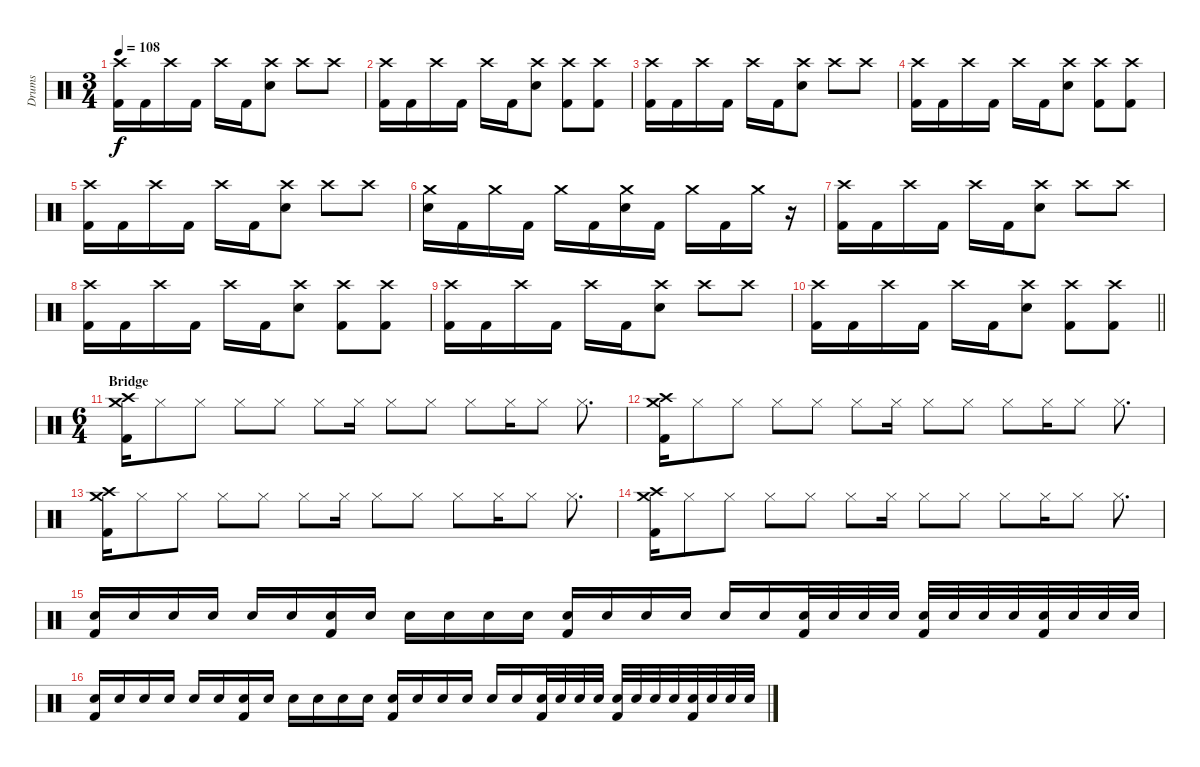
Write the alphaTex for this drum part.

\track ("Drums" "Drums") {instrument percussion}
\staff {score}
\articulation defaults
\ts (3 4)
\tempo 108
\clef neutral
\ks c
("Crash high (hit)" "Kick (hit) 2").16{dy f} "Kick (hit) 2".16 "Crash high (hit)".16 "Kick (hit) 2".16 "Crash high (hit)".16 "Kick (hit) 2".16 ("Crash high (hit)" "Electric Snare (hit)").8 "Crash high (hit)".8 "Crash high (hit)".8 |
("Crash high (hit)" "Kick (hit) 2").16 "Kick (hit) 2".16 "Crash high (hit)".16 "Kick (hit) 2".16 "Crash high (hit)".16 "Kick (hit) 2".16 ("Crash high (hit)" "Electric Snare (hit)").8 ("Crash high (hit)" "Kick (hit) 2").8 ("Crash high (hit)" "Kick (hit) 2").8 |
("Crash high (hit)" "Kick (hit) 2").16 "Kick (hit) 2".16 "Crash high (hit)".16 "Kick (hit) 2".16 "Crash high (hit)".16 "Kick (hit) 2".16 ("Crash high (hit)" "Electric Snare (hit)").8 "Crash high (hit)".8 "Crash high (hit)".8 |
("Crash high (hit)" "Kick (hit) 2").16 "Kick (hit) 2".16 "Crash high (hit)".16 "Kick (hit) 2".16 "Crash high (hit)".16 "Kick (hit) 2".16 ("Crash high (hit)" "Electric Snare (hit)").8 ("Crash high (hit)" "Kick (hit) 2").8 ("Crash high (hit)" "Kick (hit) 2").8 |
("Crash high (hit)" "Kick (hit) 2").16 "Kick (hit) 2".16 "Crash high (hit)".16 "Kick (hit) 2".16 "Crash high (hit)".16 "Kick (hit) 2".16 ("Crash high (hit)" "Electric Snare (hit)").8 "Crash high (hit)".8 "Crash high (hit)".8 |
("Crash medium (hit)" "Electric Snare (hit)").16 "Kick (hit) 2".16 "Crash medium (hit)".16 "Kick (hit) 2".16 "Crash medium (hit)".16 "Kick (hit) 2".16 ("Crash medium (hit)" "Electric Snare (hit)").16 "Kick (hit) 2".16 "Crash medium (hit)".16 "Kick (hit) 2".16 "Crash medium (hit)".16 r.16 |
("Crash high (hit)" "Kick (hit) 2").16 "Kick (hit) 2".16 "Crash high (hit)".16 "Kick (hit) 2".16 "Crash high (hit)".16 "Kick (hit) 2".16 ("Crash high (hit)" "Electric Snare (hit)").8 "Crash high (hit)".8 "Crash high (hit)".8 |
("Crash high (hit)" "Kick (hit) 2").16 "Kick (hit) 2".16 "Crash high (hit)".16 "Kick (hit) 2".16 "Crash high (hit)".16 "Kick (hit) 2".16 ("Crash high (hit)" "Electric Snare (hit)").8 ("Crash high (hit)" "Kick (hit) 2").8 ("Crash high (hit)" "Kick (hit) 2").8 |
("Crash high (hit)" "Kick (hit) 2").16 "Kick (hit) 2".16 "Crash high (hit)".16 "Kick (hit) 2".16 "Crash high (hit)".16 "Kick (hit) 2".16 ("Crash high (hit)" "Electric Snare (hit)").8 "Crash high (hit)".8 "Crash high (hit)".8 |
\barLineRight lightlight
("Crash high (hit)" "Kick (hit) 2").16 "Kick (hit) 2".16 "Crash high (hit)".16 "Kick (hit) 2".16 "Crash high (hit)".16 "Kick (hit) 2".16 ("Crash high (hit)" "Electric Snare (hit)").8 ("Crash high (hit)" "Kick (hit) 2").8 ("Crash high (hit)" "Kick (hit) 2").8 |
\ts (6 4)
\section ("" "Bridge")
("Crash medium (hit)" "Crash high (hit)" "Kick (hit) 2").16 "Hi-Hat (closed)".8 "Hi-Hat (closed)".8 "Hi-Hat (closed)".8 "Hi-Hat (closed)".8 "Hi-Hat (closed)".8 "Hi-Hat (closed)".16 "Hi-Hat (closed)".8 "Hi-Hat (closed)".8 "Hi-Hat (closed)".8 "Hi-Hat (closed)".16 "Hi-Hat (closed)".8 "Hi-Hat (closed)".8{d} |
("Crash medium (hit)" "Crash high (hit)" "Kick (hit) 2").16 "Hi-Hat (closed)".8 "Hi-Hat (closed)".8 "Hi-Hat (closed)".8 "Hi-Hat (closed)".8 "Hi-Hat (closed)".8 "Hi-Hat (closed)".16 "Hi-Hat (closed)".8 "Hi-Hat (closed)".8 "Hi-Hat (closed)".8 "Hi-Hat (closed)".16 "Hi-Hat (closed)".8 "Hi-Hat (closed)".8{d} |
("Crash medium (hit)" "Crash high (hit)" "Kick (hit) 2").16 "Hi-Hat (closed)".8 "Hi-Hat (closed)".8 "Hi-Hat (closed)".8 "Hi-Hat (closed)".8 "Hi-Hat (closed)".8 "Hi-Hat (closed)".16 "Hi-Hat (closed)".8 "Hi-Hat (closed)".8 "Hi-Hat (closed)".8 "Hi-Hat (closed)".16 "Hi-Hat (closed)".8 "Hi-Hat (closed)".8{d} |
("Crash medium (hit)" "Crash high (hit)" "Kick (hit) 2").16 "Hi-Hat (closed)".8 "Hi-Hat (closed)".8 "Hi-Hat (closed)".8 "Hi-Hat (closed)".8 "Hi-Hat (closed)".8 "Hi-Hat (closed)".16 "Hi-Hat (closed)".8 "Hi-Hat (closed)".8 "Hi-Hat (closed)".8 "Hi-Hat (closed)".16 "Hi-Hat (closed)".8 "Hi-Hat (closed)".8{d} |
("Electric Snare (hit)" "Kick (hit) 2").16 "Electric Snare (hit)".16 "Electric Snare (hit)".16 "Electric Snare (hit)".16 "Electric Snare (hit)".16 "Electric Snare (hit)".16 ("Electric Snare (hit)" "Kick (hit) 2").16 "Electric Snare (hit)".16 "Electric Snare (hit)".16 "Electric Snare (hit)".16 "Electric Snare (hit)".16 "Electric Snare (hit)".16 ("Electric Snare (hit)" "Kick (hit) 2").16 "Electric Snare (hit)".16 "Electric Snare (hit)".16 "Electric Snare (hit)".16 "Electric Snare (hit)".16 "Electric Snare (hit)".16 ("Electric Snare (hit)" "Kick (hit) 2").32 "Electric Snare (hit)".32 "Electric Snare (hit)".32 "Electric Snare (hit)".32 ("Electric Snare (hit)" "Kick (hit) 2").32 "Electric Snare (hit)".32 "Electric Snare (hit)".32 "Electric Snare (hit)".32 ("Electric Snare (hit)" "Kick (hit) 2").32 "Electric Snare (hit)".32 "Electric Snare (hit)".32 "Electric Snare (hit)".32 |
("Electric Snare (hit)" "Kick (hit) 2").16 "Electric Snare (hit)".16 "Electric Snare (hit)".16 "Electric Snare (hit)".16 "Electric Snare (hit)".16 "Electric Snare (hit)".16 ("Electric Snare (hit)" "Kick (hit) 2").16 "Electric Snare (hit)".16 "Electric Snare (hit)".16 "Electric Snare (hit)".16 "Electric Snare (hit)".16 "Electric Snare (hit)".16 ("Electric Snare (hit)" "Kick (hit) 2").16 "Electric Snare (hit)".16 "Electric Snare (hit)".16 "Electric Snare (hit)".16 "Electric Snare (hit)".16 "Electric Snare (hit)".16 ("Electric Snare (hit)" "Kick (hit) 2").32 "Electric Snare (hit)".32 "Electric Snare (hit)".32 "Electric Snare (hit)".32 ("Electric Snare (hit)" "Kick (hit) 2").32 "Electric Snare (hit)".32 "Electric Snare (hit)".32 "Electric Snare (hit)".32 ("Electric Snare (hit)" "Kick (hit) 2").32 "Electric Snare (hit)".32 "Electric Snare (hit)".32 "Electric Snare (hit)".32
